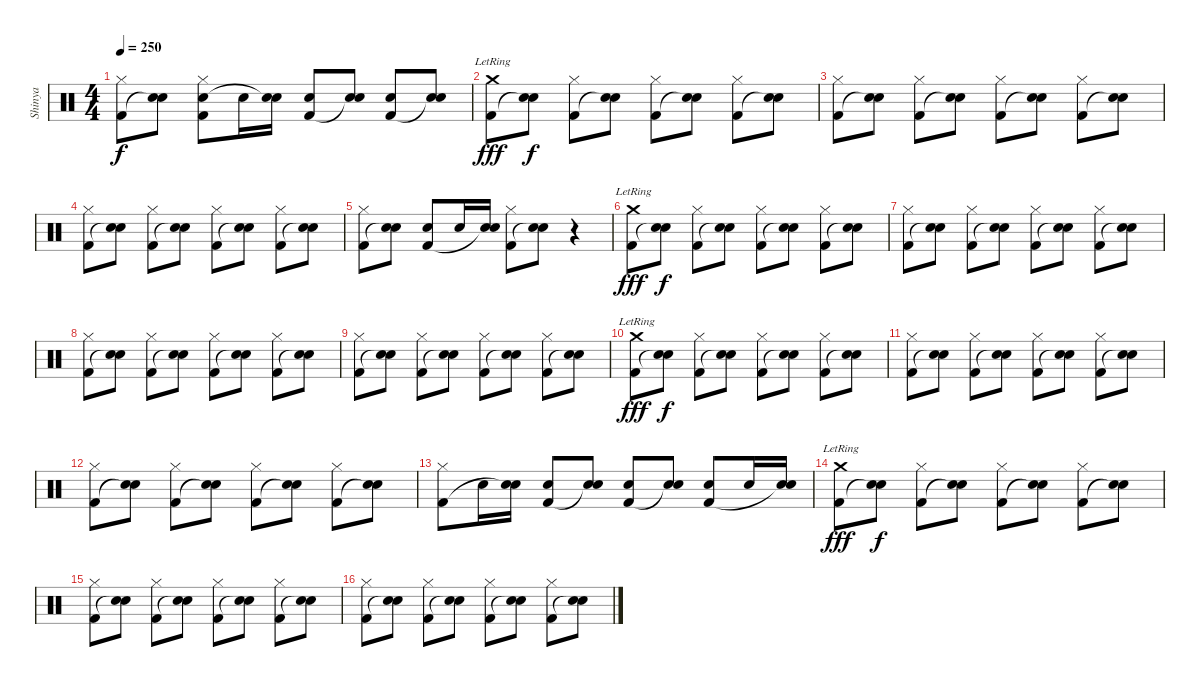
\track ("Shinya" "Shinya") {instrument percussion}
\staff {score}
\articulation defaults
\ts (4 4)
\tempo 250
\clef neutral
\ks c
("Hi-Hat (closed)" "Kick (hit) 2").8{dy f} ("Electric Snare (hit)" "Snare (hit)"{t}).8 ("Hi-Hat (closed)" "Electric Snare (hit)" "Kick (hit) 2").8 "Electric Snare (hit)".16 ("Electric Snare (hit)" "Snare (hit)"{t}).16 ("Electric Snare (hit)" "Kick (hit) 2").8 ("Electric Snare (hit)" "Snare (hit)"{t}).8 ("Electric Snare (hit)" "Kick (hit) 2").8 ("Electric Snare (hit)" "Snare (hit)"{t}).8 |
("Crash medium (hit)"{lr} "Kick (hit) 2").8{dy fff} ("Electric Snare (hit)" "Snare (hit)"{t}).8{dy f} ("Hi-Hat (closed)" "Kick (hit) 2").8 ("Electric Snare (hit)" "Snare (hit)"{t}).8 ("Hi-Hat (closed)" "Kick (hit) 2").8 ("Electric Snare (hit)" "Snare (hit)"{t}).8 ("Hi-Hat (closed)" "Kick (hit) 2").8 ("Electric Snare (hit)" "Snare (hit)"{t}).8 |
("Hi-Hat (closed)" "Kick (hit) 2").8 ("Electric Snare (hit)" "Snare (hit)"{t}).8 ("Hi-Hat (closed)" "Kick (hit) 2").8 ("Electric Snare (hit)" "Snare (hit)"{t}).8 ("Hi-Hat (closed)" "Kick (hit) 2").8 ("Electric Snare (hit)" "Snare (hit)"{t}).8 ("Hi-Hat (closed)" "Kick (hit) 2").8 ("Electric Snare (hit)" "Snare (hit)"{t}).8 |
("Hi-Hat (closed)" "Kick (hit) 2").8 ("Electric Snare (hit)" "Snare (hit)"{t}).8 ("Hi-Hat (closed)" "Kick (hit) 2").8 ("Electric Snare (hit)" "Snare (hit)"{t}).8 ("Hi-Hat (closed)" "Kick (hit) 2").8 ("Electric Snare (hit)" "Snare (hit)"{t}).8 ("Hi-Hat (closed)" "Kick (hit) 2").8 ("Electric Snare (hit)" "Snare (hit)"{t}).8 |
("Hi-Hat (closed)" "Kick (hit) 2").8 ("Electric Snare (hit)" "Snare (hit)"{t}).8 ("Electric Snare (hit)" "Kick (hit) 2").8 "Electric Snare (hit)".16 ("Electric Snare (hit)" "Snare (hit)"{t}).16 ("Hi-Hat (closed)" "Kick (hit) 2").8 ("Electric Snare (hit)" "Snare (hit)"{t}).8 r.4 |
("Crash medium (hit)"{lr} "Kick (hit) 2").8{dy fff} ("Electric Snare (hit)" "Snare (hit)"{t}).8{dy f} ("Hi-Hat (closed)" "Kick (hit) 2").8 ("Electric Snare (hit)" "Snare (hit)"{t}).8 ("Hi-Hat (closed)" "Kick (hit) 2").8 ("Electric Snare (hit)" "Snare (hit)"{t}).8 ("Hi-Hat (closed)" "Kick (hit) 2").8 ("Electric Snare (hit)" "Snare (hit)"{t}).8 |
("Hi-Hat (closed)" "Kick (hit) 2").8 ("Electric Snare (hit)" "Snare (hit)"{t}).8 ("Hi-Hat (closed)" "Kick (hit) 2").8 ("Electric Snare (hit)" "Snare (hit)"{t}).8 ("Hi-Hat (closed)" "Kick (hit) 2").8 ("Electric Snare (hit)" "Snare (hit)"{t}).8 ("Hi-Hat (closed)" "Kick (hit) 2").8 ("Electric Snare (hit)" "Snare (hit)"{t}).8 |
("Hi-Hat (closed)" "Kick (hit) 2").8 ("Electric Snare (hit)" "Snare (hit)"{t}).8 ("Hi-Hat (closed)" "Kick (hit) 2").8 ("Electric Snare (hit)" "Snare (hit)"{t}).8 ("Hi-Hat (closed)" "Kick (hit) 2").8 ("Electric Snare (hit)" "Snare (hit)"{t}).8 ("Hi-Hat (closed)" "Kick (hit) 2").8 ("Electric Snare (hit)" "Snare (hit)"{t}).8 |
("Hi-Hat (closed)" "Kick (hit) 2").8 ("Electric Snare (hit)" "Snare (hit)"{t}).8 ("Hi-Hat (closed)" "Kick (hit) 2").8 ("Electric Snare (hit)" "Snare (hit)"{t}).8 ("Hi-Hat (closed)" "Kick (hit) 2").8 ("Electric Snare (hit)" "Snare (hit)"{t}).8 ("Hi-Hat (closed)" "Kick (hit) 2").8 ("Electric Snare (hit)" "Snare (hit)"{t}).8 |
("Crash medium (hit)"{lr} "Kick (hit) 2").8{dy fff} ("Electric Snare (hit)" "Snare (hit)"{t}).8{dy f} ("Hi-Hat (closed)" "Kick (hit) 2").8 ("Electric Snare (hit)" "Snare (hit)"{t}).8 ("Hi-Hat (closed)" "Kick (hit) 2").8 ("Electric Snare (hit)" "Snare (hit)"{t}).8 ("Hi-Hat (closed)" "Kick (hit) 2").8 ("Electric Snare (hit)" "Snare (hit)"{t}).8 |
("Hi-Hat (closed)" "Kick (hit) 2").8 ("Electric Snare (hit)" "Snare (hit)"{t}).8 ("Hi-Hat (closed)" "Kick (hit) 2").8 ("Electric Snare (hit)" "Snare (hit)"{t}).8 ("Hi-Hat (closed)" "Kick (hit) 2").8 ("Electric Snare (hit)" "Snare (hit)"{t}).8 ("Hi-Hat (closed)" "Kick (hit) 2").8 ("Electric Snare (hit)" "Snare (hit)"{t}).8 |
("Hi-Hat (closed)" "Kick (hit) 2").8 ("Electric Snare (hit)" "Snare (hit)"{t}).8 ("Hi-Hat (closed)" "Kick (hit) 2").8 ("Electric Snare (hit)" "Snare (hit)"{t}).8 ("Hi-Hat (closed)" "Kick (hit) 2").8 ("Electric Snare (hit)" "Snare (hit)"{t}).8 ("Hi-Hat (closed)" "Kick (hit) 2").8 ("Electric Snare (hit)" "Snare (hit)"{t}).8 |
("Hi-Hat (closed)" "Kick (hit) 2").8 "Electric Snare (hit)".16 ("Electric Snare (hit)" "Snare (hit)"{t}).16 ("Electric Snare (hit)" "Kick (hit) 2").8 ("Electric Snare (hit)" "Snare (hit)"{t}).8 ("Electric Snare (hit)" "Kick (hit) 2").8 ("Electric Snare (hit)" "Snare (hit)"{t}).8 ("Electric Snare (hit)" "Kick (hit) 2").8 "Electric Snare (hit)".16 ("Electric Snare (hit)" "Snare (hit)"{t}).16 |
("Crash medium (hit)"{lr} "Kick (hit) 2").8{dy fff} ("Electric Snare (hit)" "Snare (hit)"{t}).8{dy f} ("Hi-Hat (closed)" "Kick (hit) 2").8 ("Electric Snare (hit)" "Snare (hit)"{t}).8 ("Hi-Hat (closed)" "Kick (hit) 2").8 ("Electric Snare (hit)" "Snare (hit)"{t}).8 ("Hi-Hat (closed)" "Kick (hit) 2").8 ("Electric Snare (hit)" "Snare (hit)"{t}).8 |
("Hi-Hat (closed)" "Kick (hit) 2").8 ("Electric Snare (hit)" "Snare (hit)"{t}).8 ("Hi-Hat (closed)" "Kick (hit) 2").8 ("Electric Snare (hit)" "Snare (hit)"{t}).8 ("Hi-Hat (closed)" "Kick (hit) 2").8 ("Electric Snare (hit)" "Snare (hit)"{t}).8 ("Hi-Hat (closed)" "Kick (hit) 2").8 ("Electric Snare (hit)" "Snare (hit)"{t}).8 |
("Hi-Hat (closed)" "Kick (hit) 2").8 ("Electric Snare (hit)" "Snare (hit)"{t}).8 ("Hi-Hat (closed)" "Kick (hit) 2").8 ("Electric Snare (hit)" "Snare (hit)"{t}).8 ("Hi-Hat (closed)" "Kick (hit) 2").8 ("Electric Snare (hit)" "Snare (hit)"{t}).8 ("Hi-Hat (closed)" "Kick (hit) 2").8 ("Electric Snare (hit)" "Snare (hit)"{t}).8
